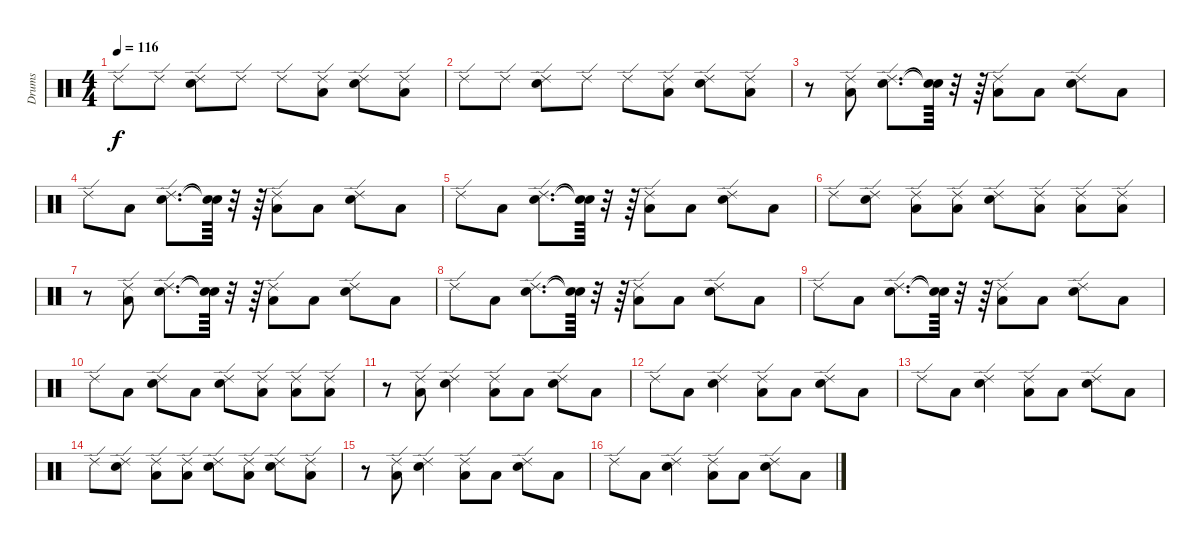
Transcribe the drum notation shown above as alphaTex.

\track ("Drums" "Drums") {instrument percussion}
\staff {score}
\articulation defaults
\ts (4 4)
\tempo 116
\clef neutral
\ks c "Ride (edge) 2".8{dy f} "Ride (edge) 2".8
("Snare (hit) 2" "Ride (edge) 2").8 "Ride (edge) 2".8 "Ride (edge) 2".8 ("Low Floor Tom (hit)" "Ride (edge) 2").8 ("Snare (hit) 2" "Ride (edge) 2").8 ("Low Floor Tom (hit)" "Ride (edge) 2").8 |
"Ride (edge) 2".8 "Ride (edge) 2".8 ("Snare (hit) 2" "Ride (edge) 2").8 "Ride (edge) 2".8 "Ride (edge) 2".8 ("Low Floor Tom (hit)" "Ride (edge) 2").8 ("Snare (hit) 2" "Ride (edge) 2").8 ("Low Floor Tom (hit)" "Ride (edge) 2").8 |
r.8 ("Low Floor Tom (hit)" "Ride (edge) 2").8 ("Snare (hit) 2" "Ride (edge) 2").8{d} ("Snare (hit)"{t} "Snare (hit)"{t}).64 r.32 r.64 ("Low Floor Tom (hit)" "Ride (edge) 2").8 "Low Floor Tom (hit)".8 ("Snare (hit) 2" "Ride (edge) 2").8 "Low Floor Tom (hit)".8 |
"Ride (edge) 2".8 "Low Floor Tom (hit)".8 ("Snare (hit) 2" "Ride (edge) 2").8{d} ("Snare (hit)"{t} "Snare (hit)"{t}).64 r.32 r.64 ("Low Floor Tom (hit)" "Ride (edge) 2").8 "Low Floor Tom (hit)".8 ("Snare (hit) 2" "Ride (edge) 2").8 "Low Floor Tom (hit)".8 |
"Ride (edge) 2".8 "Low Floor Tom (hit)".8 ("Snare (hit) 2" "Ride (edge) 2").8{d} ("Snare (hit)"{t} "Snare (hit)"{t}).64 r.32 r.64 ("Low Floor Tom (hit)" "Ride (edge) 2").8 "Low Floor Tom (hit)".8 ("Snare (hit) 2" "Ride (edge) 2").8 "Low Floor Tom (hit)".8 |
"Ride (edge) 2".8 ("Snare (hit) 2" "Ride (edge) 2").8 ("Low Floor Tom (hit)" "Ride (edge) 2").8 ("Low Floor Tom (hit)" "Ride (edge) 2").8 ("Snare (hit) 2" "Ride (edge) 2").8 ("Low Floor Tom (hit)" "Ride (edge) 2").8 ("Low Floor Tom (hit)" "Ride (edge) 2").8 ("Low Floor Tom (hit)" "Ride (edge) 2").8 |
r.8 ("Low Floor Tom (hit)" "Ride (edge) 2").8 ("Snare (hit) 2" "Ride (edge) 2").8{d} ("Snare (hit)"{t} "Snare (hit)"{t}).64 r.32 r.64 ("Low Floor Tom (hit)" "Ride (edge) 2").8 "Low Floor Tom (hit)".8 ("Snare (hit) 2" "Ride (edge) 2").8 "Low Floor Tom (hit)".8 |
"Ride (edge) 2".8 "Low Floor Tom (hit)".8 ("Snare (hit) 2" "Ride (edge) 2").8{d} ("Snare (hit)"{t} "Snare (hit)"{t}).64 r.32 r.64 ("Low Floor Tom (hit)" "Ride (edge) 2").8 "Low Floor Tom (hit)".8 ("Snare (hit) 2" "Ride (edge) 2").8 "Low Floor Tom (hit)".8 |
"Ride (edge) 2".8 "Low Floor Tom (hit)".8 ("Snare (hit) 2" "Ride (edge) 2").8{d} ("Snare (hit)"{t} "Snare (hit)"{t}).64 r.32 r.64 ("Low Floor Tom (hit)" "Ride (edge) 2").8 "Low Floor Tom (hit)".8 ("Snare (hit) 2" "Ride (edge) 2").8 "Low Floor Tom (hit)".8 |
"Ride (edge) 2".8 "Low Floor Tom (hit)".8 ("Snare (hit) 2" "Ride (edge) 2").8 "Low Floor Tom (hit)".8 ("Snare (hit) 2" "Ride (edge) 2").8 ("Low Floor Tom (hit)" "Ride (edge) 2").8 ("Low Floor Tom (hit)" "Ride (edge) 2").8 ("Low Floor Tom (hit)" "Ride (edge) 2").8 |
r.8 ("Low Floor Tom (hit)" "Ride (edge) 2").8 ("Snare (hit) 2" "Ride (edge) 2").4 ("Low Floor Tom (hit)" "Ride (edge) 2").8 "Low Floor Tom (hit)".8 ("Snare (hit) 2" "Ride (edge) 2").8 "Low Floor Tom (hit)".8 |
"Ride (edge) 2".8 "Low Floor Tom (hit)".8 ("Snare (hit) 2" "Ride (edge) 2").4 ("Low Floor Tom (hit)" "Ride (edge) 2").8 "Low Floor Tom (hit)".8 ("Snare (hit) 2" "Ride (edge) 2").8 "Low Floor Tom (hit)".8 |
"Ride (edge) 2".8 "Low Floor Tom (hit)".8 ("Snare (hit) 2" "Ride (edge) 2").4 ("Low Floor Tom (hit)" "Ride (edge) 2").8 "Low Floor Tom (hit)".8 ("Snare (hit) 2" "Ride (edge) 2").8 "Low Floor Tom (hit)".8 |
"Ride (edge) 2".8 ("Snare (hit) 2" "Ride (edge) 2").8 ("Low Floor Tom (hit)" "Ride (edge) 2").8 ("Low Floor Tom (hit)" "Ride (edge) 2").8 ("Snare (hit) 2" "Ride (edge) 2").8 ("Low Floor Tom (hit)" "Ride (edge) 2").8 ("Snare (hit) 2" "Ride (edge) 2").8 ("Low Floor Tom (hit)" "Ride (edge) 2").8 |
r.8 ("Low Floor Tom (hit)" "Ride (edge) 2").8 ("Snare (hit) 2" "Ride (edge) 2").4 ("Low Floor Tom (hit)" "Ride (edge) 2").8 "Low Floor Tom (hit)".8 ("Snare (hit) 2" "Ride (edge) 2").8 "Low Floor Tom (hit)".8 |
"Ride (edge) 2".8 "Low Floor Tom (hit)".8 ("Snare (hit) 2" "Ride (edge) 2").4 ("Low Floor Tom (hit)" "Ride (edge) 2").8 "Low Floor Tom (hit)".8 ("Snare (hit) 2" "Ride (edge) 2").8 "Low Floor Tom (hit)".8
